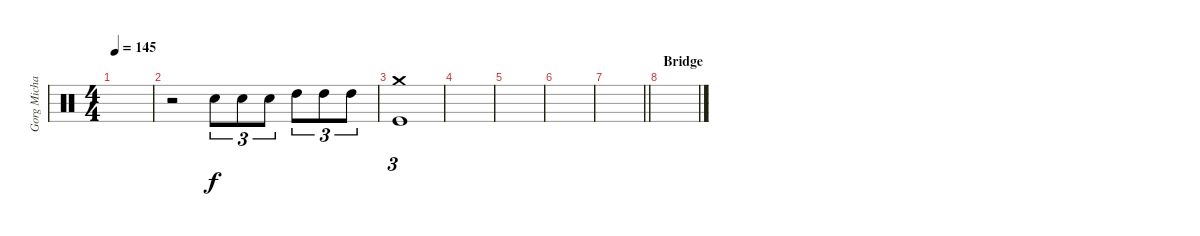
\track ("Gorg Michael" "Gorg Micha") {instrument percussion}
\staff {score}
\articulation defaults
\ts (4 4)
\tempo 145
\clef neutral
\ks c
|
r.2 "Snare (hit) 2".8{tu (3 2)} "Snare (hit) 2".8{tu (3 2)} "Snare (hit) 2".8{tu (3 2)} "High Tom (hit)".8{tu (3 2)} "High Tom (hit)".8{tu (3 2)} "High Tom (hit)".8{tu (3 2)} |
("Crash medium (hit)" "Kick (hit)").1{tu (3 2)} |
|
|
|
\barLineRight lightlight
|
\section ("" "Bridge")
